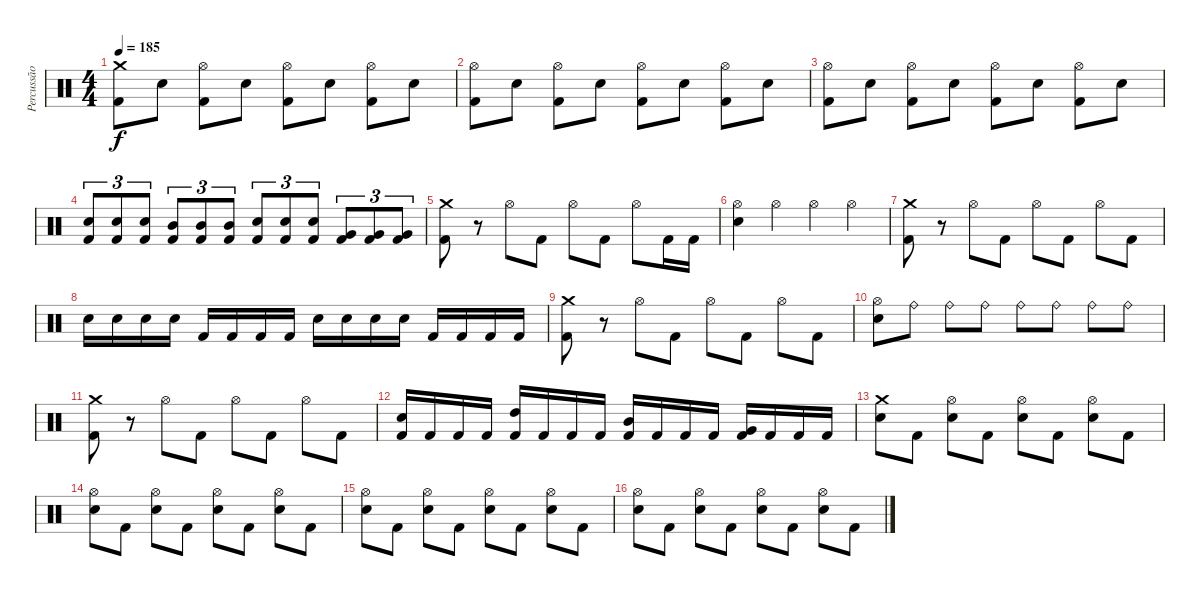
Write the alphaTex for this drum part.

\track ("Percussão" "Percussão") {instrument percussion}
\staff {score}
\articulation defaults
\ts (4 4)
\tempo 185
\clef neutral
\ks c
("Crash medium (hit)" "Kick (hit) 2").8{dy f} "Snare (hit) 2".8 ("Hi-Hat (open)" "Kick (hit) 2").8 "Snare (hit) 2".8 ("Hi-Hat (open)" "Kick (hit) 2").8 "Snare (hit) 2".8 ("Hi-Hat (open)" "Kick (hit) 2").8 "Snare (hit) 2".8 |
("Hi-Hat (open)" "Kick (hit) 2").8 "Snare (hit) 2".8 ("Hi-Hat (open)" "Kick (hit) 2").8 "Snare (hit) 2".8 ("Hi-Hat (open)" "Kick (hit) 2").8 "Snare (hit) 2".8 ("Hi-Hat (open)" "Kick (hit) 2").8 "Snare (hit) 2".8 |
("Hi-Hat (open)" "Kick (hit) 2").8 "Snare (hit) 2".8 ("Hi-Hat (open)" "Kick (hit) 2").8 "Snare (hit) 2".8 ("Hi-Hat (open)" "Kick (hit) 2").8 "Snare (hit) 2".8 ("Hi-Hat (open)" "Kick (hit) 2").8 "Snare (hit) 2".8 |
("Snare (hit) 2" "Kick (hit) 2").8{tu (3 2)} ("Snare (hit) 2" "Kick (hit) 2").8{tu (3 2)} ("Snare (hit) 2" "Kick (hit) 2").8{tu (3 2)} ("Mid Tom (hit)" "Kick (hit) 2").8{tu (3 2)} ("Mid Tom (hit)" "Kick (hit) 2").8{tu (3 2)} ("Mid Tom (hit)" "Kick (hit) 2").8{tu (3 2)} ("Snare (hit) 2" "Kick (hit) 2").8{tu (3 2)} ("Snare (hit) 2" "Kick (hit) 2").8{tu (3 2)} ("Snare (hit) 2" "Kick (hit) 2").8{tu (3 2)} ("Very Low Tom (hit)" "Kick (hit) 2").8{tu (3 2)} ("Very Low Tom (hit)" "Kick (hit) 2").8{tu (3 2)} ("Very Low Tom (hit)" "Kick (hit) 2").8{tu (3 2)} |
("Crash medium (hit)" "Kick (hit) 2").8 r.8 "Hi-Hat (open)".8 "Kick (hit) 2".8 "Hi-Hat (open)".8 "Kick (hit) 2".8 "Hi-Hat (open)".8 "Kick (hit) 2".16 "Kick (hit) 2".16 |
("Hi-Hat (open)" "Snare (hit) 2").4 "Hi-Hat (open)".4 "Hi-Hat (open)".4 "Hi-Hat (open)".4 |
("Crash medium (hit)" "Kick (hit) 2").8 r.8 "Hi-Hat (open)".8 "Kick (hit) 2".8 "Hi-Hat (open)".8 "Kick (hit) 2".8 "Hi-Hat (open)".8 "Kick (hit) 2".8 |
"Snare (hit) 2".16 "Snare (hit) 2".16 "Snare (hit) 2".16 "Snare (hit) 2".16 "Kick (hit) 2".16 "Kick (hit) 2".16 "Kick (hit) 2".16 "Kick (hit) 2".16 "Snare (hit) 2".16 "Snare (hit) 2".16 "Snare (hit) 2".16 "Snare (hit) 2".16 "Kick (hit) 2".16 "Kick (hit) 2".16 "Kick (hit) 2".16 "Kick (hit) 2".16 |
("Crash medium (hit)" "Kick (hit) 2").8 r.8 "Hi-Hat (open)".8 "Kick (hit) 2".8 "Hi-Hat (open)".8 "Kick (hit) 2".8 "Hi-Hat (open)".8 "Kick (hit) 2".8 |
("Hi-Hat (open)" "Snare (hit) 2").8 "Ride (bell)".8 "Ride (bell)".8 "Ride (bell)".8 "Ride (bell)".8 "Ride (bell)".8 "Ride (bell)".8 "Ride (bell)".8 |
("Crash medium (hit)" "Kick (hit) 2").8 r.8 "Hi-Hat (open)".8 "Kick (hit) 2".8 "Hi-Hat (open)".8 "Kick (hit) 2".8 "Hi-Hat (open)".8 "Kick (hit) 2".8 |
("Snare (hit) 2" "Kick (hit) 2").16 "Kick (hit) 2".16 "Kick (hit) 2".16 "Kick (hit) 2".16 ("High Tom (hit)" "Kick (hit) 2").16 "Kick (hit) 2".16 "Kick (hit) 2".16 "Kick (hit) 2".16 ("Mid Tom (hit)" "Kick (hit) 2").16 "Kick (hit) 2".16 "Kick (hit) 2".16 "Kick (hit) 2".16 ("Very Low Tom (hit)" "Kick (hit) 2").16 "Kick (hit) 2".16 "Kick (hit) 2".16 "Kick (hit) 2".16 |
("Crash medium (hit)" "Snare (hit) 2").8 "Kick (hit) 2".8 ("Hi-Hat (open)" "Snare (hit) 2").8 "Kick (hit) 2".8 ("Hi-Hat (open)" "Snare (hit) 2").8 "Kick (hit) 2".8 ("Hi-Hat (open)" "Snare (hit) 2").8 "Kick (hit) 2".8 |
("Hi-Hat (open)" "Snare (hit) 2").8 "Kick (hit) 2".8 ("Hi-Hat (open)" "Snare (hit) 2").8 "Kick (hit) 2".8 ("Hi-Hat (open)" "Snare (hit) 2").8 "Kick (hit) 2".8 ("Hi-Hat (open)" "Snare (hit) 2").8 "Kick (hit) 2".8 |
("Hi-Hat (open)" "Snare (hit) 2").8 "Kick (hit) 2".8 ("Hi-Hat (open)" "Snare (hit) 2").8 "Kick (hit) 2".8 ("Hi-Hat (open)" "Snare (hit) 2").8 "Kick (hit) 2".8 ("Hi-Hat (open)" "Snare (hit) 2").8 "Kick (hit) 2".8 |
("Hi-Hat (open)" "Snare (hit) 2").8 "Kick (hit) 2".8 ("Hi-Hat (open)" "Snare (hit) 2").8 "Kick (hit) 2".8 ("Hi-Hat (open)" "Snare (hit) 2").8 "Kick (hit) 2".8 ("Hi-Hat (open)" "Snare (hit) 2").8 "Kick (hit) 2".8
